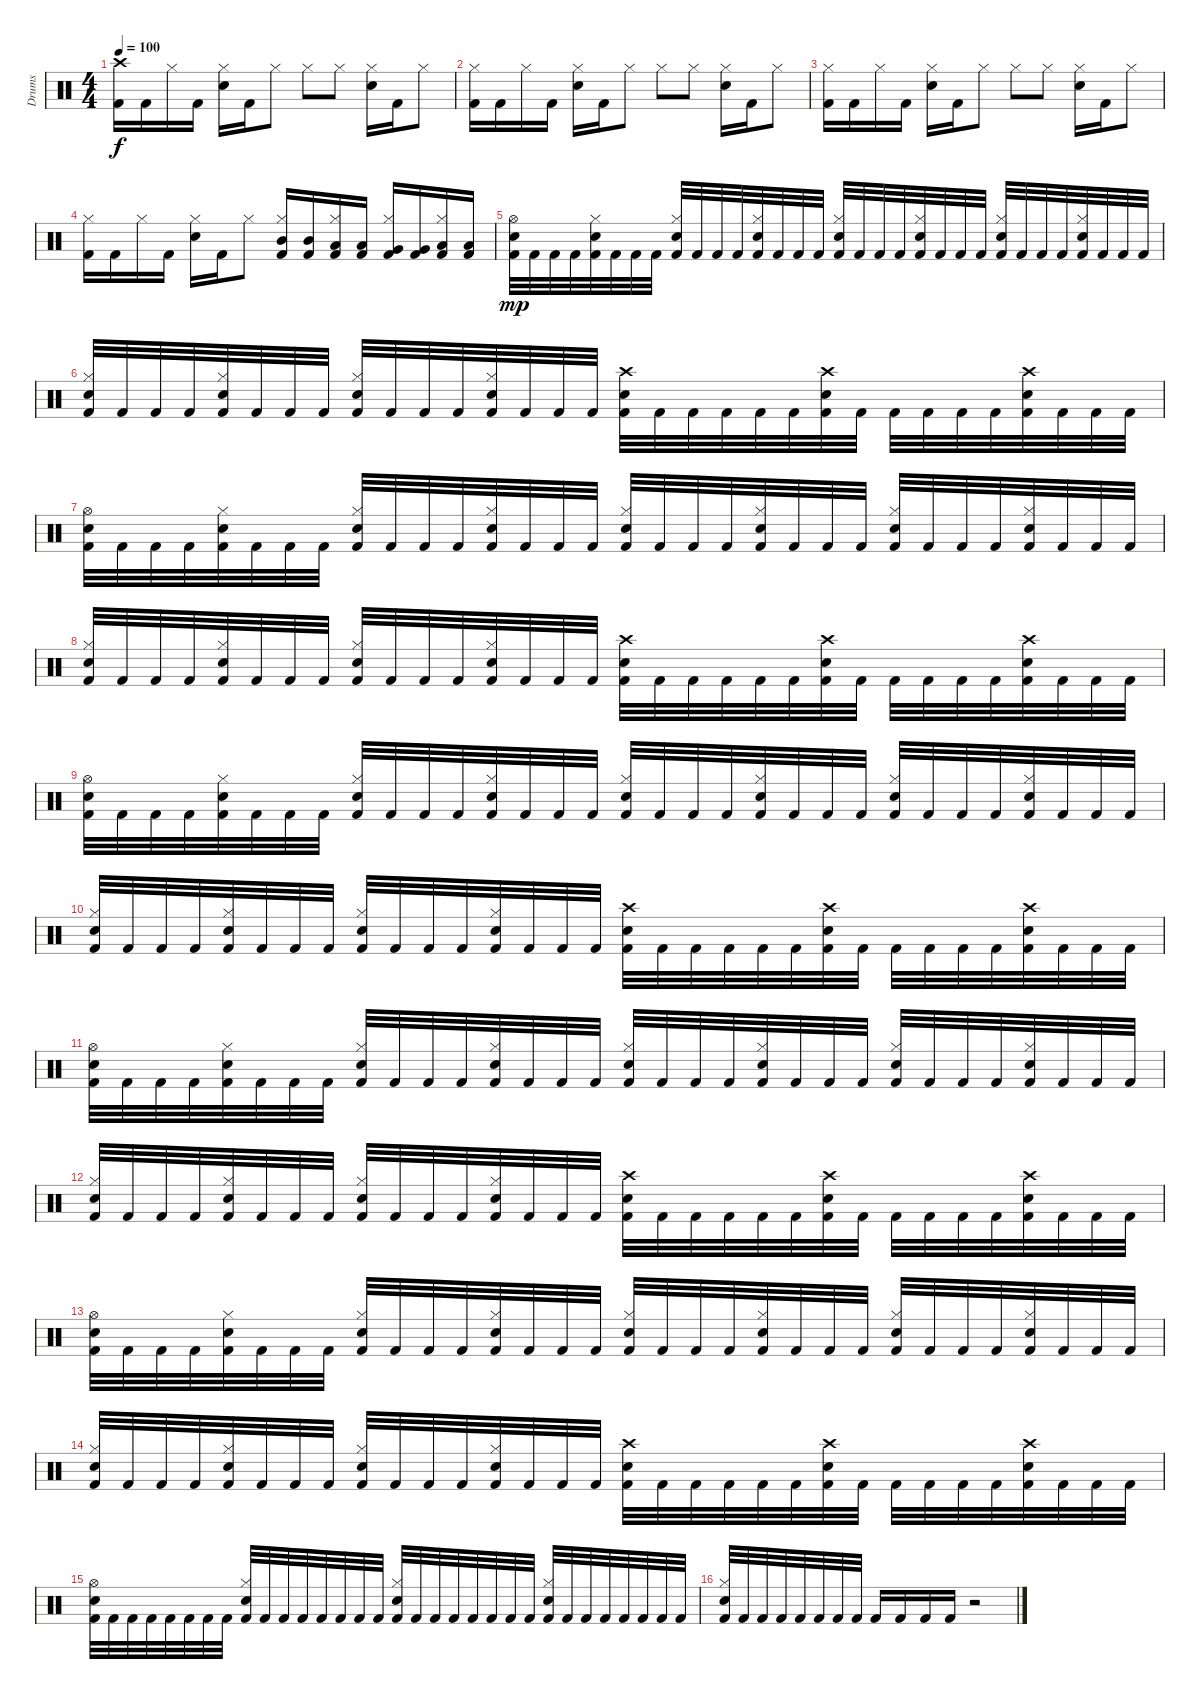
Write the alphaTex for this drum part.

\track ("Drums" "Drums") {instrument percussion}
\staff {score}
\articulation defaults
\ts (4 4)
\tempo 100
\clef neutral
\ks c
("Crash high (hit)" "Kick (hit) 2").16{dy f} "Kick (hit) 2".16 "Hi-Hat (closed)".16 "Kick (hit) 2".16 ("Hi-Hat (closed)" "Electric Snare (hit)").16 "Kick (hit) 2".16 "Hi-Hat (closed)".8 "Hi-Hat (closed)".8 "Hi-Hat (closed)".8 ("Hi-Hat (closed)" "Electric Snare (hit)").16 "Kick (hit) 2".16 "Hi-Hat (closed)".8 |
("Hi-Hat (closed)" "Kick (hit) 2").16 "Kick (hit) 2".16 "Hi-Hat (closed)".16 "Kick (hit) 2".16 ("Hi-Hat (closed)" "Electric Snare (hit)").16 "Kick (hit) 2".16 "Hi-Hat (closed)".8 "Hi-Hat (closed)".8 "Hi-Hat (closed)".8 ("Hi-Hat (closed)" "Electric Snare (hit)").16 "Kick (hit) 2".16 "Hi-Hat (closed)".8 |
("Hi-Hat (closed)" "Kick (hit) 2").16 "Kick (hit) 2".16 "Hi-Hat (closed)".16 "Kick (hit) 2".16 ("Hi-Hat (closed)" "Electric Snare (hit)").16 "Kick (hit) 2".16 "Hi-Hat (closed)".8 "Hi-Hat (closed)".8 "Hi-Hat (closed)".8 ("Hi-Hat (closed)" "Electric Snare (hit)").16 "Kick (hit) 2".16 "Hi-Hat (closed)".8 |
("Hi-Hat (closed)" "Kick (hit) 2").16 "Kick (hit) 2".16 "Hi-Hat (closed)".16 "Kick (hit) 2".16 ("Hi-Hat (closed)" "Electric Snare (hit)").16 "Kick (hit) 2".16 "Hi-Hat (closed)".8 ("Hi-Hat (closed)" "Mid Tom (hit)" "Kick (hit) 2").16 ("Mid Tom (hit)" "Kick (hit) 2").16 ("Hi-Hat (closed)" "Low Tom (hit)" "Kick (hit) 2").16 ("Low Tom (hit)" "Kick (hit) 2").16 ("Hi-Hat (closed)" "Very Low Tom (hit)" "Kick (hit) 2").16 ("Very Low Tom (hit)" "Kick (hit) 2").16 ("Hi-Hat (closed)" "Low Floor Tom (hit)" "Kick (hit) 2").16 ("Low Floor Tom (hit)" "Kick (hit) 2").16 |
("Hi-Hat (open)" "Electric Snare (hit)" "Kick (hit) 2").32{dy mp} "Kick (hit) 2".32 "Kick (hit) 2".32 "Kick (hit) 2".32 ("Hi-Hat (closed)" "Electric Snare (hit)" "Kick (hit) 2").32 "Kick (hit) 2".32 "Kick (hit) 2".32 "Kick (hit) 2".32 ("Hi-Hat (closed)" "Electric Snare (hit)" "Kick (hit) 2").32 "Kick (hit) 2".32 "Kick (hit) 2".32 "Kick (hit) 2".32 ("Hi-Hat (closed)" "Electric Snare (hit)" "Kick (hit) 2").32 "Kick (hit) 2".32 "Kick (hit) 2".32 "Kick (hit) 2".32 ("Hi-Hat (closed)" "Electric Snare (hit)" "Kick (hit) 2").32 "Kick (hit) 2".32 "Kick (hit) 2".32 "Kick (hit) 2".32 ("Hi-Hat (closed)" "Electric Snare (hit)" "Kick (hit) 2").32 "Kick (hit) 2".32 "Kick (hit) 2".32 "Kick (hit) 2".32 ("Hi-Hat (closed)" "Electric Snare (hit)" "Kick (hit) 2").32 "Kick (hit) 2".32 "Kick (hit) 2".32 "Kick (hit) 2".32 ("Hi-Hat (closed)" "Electric Snare (hit)" "Kick (hit) 2").32 "Kick (hit) 2".32 "Kick (hit) 2".32 "Kick (hit) 2".32 |
("Hi-Hat (closed)" "Electric Snare (hit)" "Kick (hit) 2").32 "Kick (hit) 2".32 "Kick (hit) 2".32 "Kick (hit) 2".32 ("Hi-Hat (closed)" "Electric Snare (hit)" "Kick (hit) 2").32 "Kick (hit) 2".32 "Kick (hit) 2".32 "Kick (hit) 2".32 ("Hi-Hat (closed)" "Electric Snare (hit)" "Kick (hit) 2").32 "Kick (hit) 2".32 "Kick (hit) 2".32 "Kick (hit) 2".32 ("Hi-Hat (closed)" "Electric Snare (hit)" "Kick (hit) 2").32 "Kick (hit) 2".32 "Kick (hit) 2".32 "Kick (hit) 2".32 ("Crash high (hit)" "Electric Snare (hit)" "Kick (hit) 2").32 "Kick (hit) 2".32 "Kick (hit) 2".32 "Kick (hit) 2".32 "Kick (hit) 2".32 "Kick (hit) 2".32 ("Crash high (hit)" "Electric Snare (hit)" "Kick (hit) 2").32 "Kick (hit) 2".32 "Kick (hit) 2".32 "Kick (hit) 2".32 "Kick (hit) 2".32 "Kick (hit) 2".32 ("Crash high (hit)" "Electric Snare (hit)" "Kick (hit) 2").32 "Kick (hit) 2".32 "Kick (hit) 2".32 "Kick (hit) 2".32 |
("Hi-Hat (open)" "Electric Snare (hit)" "Kick (hit) 2").32 "Kick (hit) 2".32 "Kick (hit) 2".32 "Kick (hit) 2".32 ("Hi-Hat (closed)" "Electric Snare (hit)" "Kick (hit) 2").32 "Kick (hit) 2".32 "Kick (hit) 2".32 "Kick (hit) 2".32 ("Hi-Hat (closed)" "Electric Snare (hit)" "Kick (hit) 2").32 "Kick (hit) 2".32 "Kick (hit) 2".32 "Kick (hit) 2".32 ("Hi-Hat (closed)" "Electric Snare (hit)" "Kick (hit) 2").32 "Kick (hit) 2".32 "Kick (hit) 2".32 "Kick (hit) 2".32 ("Hi-Hat (closed)" "Electric Snare (hit)" "Kick (hit) 2").32 "Kick (hit) 2".32 "Kick (hit) 2".32 "Kick (hit) 2".32 ("Hi-Hat (closed)" "Electric Snare (hit)" "Kick (hit) 2").32 "Kick (hit) 2".32 "Kick (hit) 2".32 "Kick (hit) 2".32 ("Hi-Hat (closed)" "Electric Snare (hit)" "Kick (hit) 2").32 "Kick (hit) 2".32 "Kick (hit) 2".32 "Kick (hit) 2".32 ("Hi-Hat (closed)" "Electric Snare (hit)" "Kick (hit) 2").32 "Kick (hit) 2".32 "Kick (hit) 2".32 "Kick (hit) 2".32 |
("Hi-Hat (closed)" "Electric Snare (hit)" "Kick (hit) 2").32 "Kick (hit) 2".32 "Kick (hit) 2".32 "Kick (hit) 2".32 ("Hi-Hat (closed)" "Electric Snare (hit)" "Kick (hit) 2").32 "Kick (hit) 2".32 "Kick (hit) 2".32 "Kick (hit) 2".32 ("Hi-Hat (closed)" "Electric Snare (hit)" "Kick (hit) 2").32 "Kick (hit) 2".32 "Kick (hit) 2".32 "Kick (hit) 2".32 ("Hi-Hat (closed)" "Electric Snare (hit)" "Kick (hit) 2").32 "Kick (hit) 2".32 "Kick (hit) 2".32 "Kick (hit) 2".32 ("Crash high (hit)" "Electric Snare (hit)" "Kick (hit) 2").32 "Kick (hit) 2".32 "Kick (hit) 2".32 "Kick (hit) 2".32 "Kick (hit) 2".32 "Kick (hit) 2".32 ("Crash high (hit)" "Electric Snare (hit)" "Kick (hit) 2").32 "Kick (hit) 2".32 "Kick (hit) 2".32 "Kick (hit) 2".32 "Kick (hit) 2".32 "Kick (hit) 2".32 ("Crash high (hit)" "Electric Snare (hit)" "Kick (hit) 2").32 "Kick (hit) 2".32 "Kick (hit) 2".32 "Kick (hit) 2".32 |
("Hi-Hat (open)" "Electric Snare (hit)" "Kick (hit) 2").32 "Kick (hit) 2".32 "Kick (hit) 2".32 "Kick (hit) 2".32 ("Hi-Hat (closed)" "Electric Snare (hit)" "Kick (hit) 2").32 "Kick (hit) 2".32 "Kick (hit) 2".32 "Kick (hit) 2".32 ("Hi-Hat (closed)" "Electric Snare (hit)" "Kick (hit) 2").32 "Kick (hit) 2".32 "Kick (hit) 2".32 "Kick (hit) 2".32 ("Hi-Hat (closed)" "Electric Snare (hit)" "Kick (hit) 2").32 "Kick (hit) 2".32 "Kick (hit) 2".32 "Kick (hit) 2".32 ("Hi-Hat (closed)" "Electric Snare (hit)" "Kick (hit) 2").32 "Kick (hit) 2".32 "Kick (hit) 2".32 "Kick (hit) 2".32 ("Hi-Hat (closed)" "Electric Snare (hit)" "Kick (hit) 2").32 "Kick (hit) 2".32 "Kick (hit) 2".32 "Kick (hit) 2".32 ("Hi-Hat (closed)" "Electric Snare (hit)" "Kick (hit) 2").32 "Kick (hit) 2".32 "Kick (hit) 2".32 "Kick (hit) 2".32 ("Hi-Hat (closed)" "Electric Snare (hit)" "Kick (hit) 2").32 "Kick (hit) 2".32 "Kick (hit) 2".32 "Kick (hit) 2".32 |
("Hi-Hat (closed)" "Electric Snare (hit)" "Kick (hit) 2").32 "Kick (hit) 2".32 "Kick (hit) 2".32 "Kick (hit) 2".32 ("Hi-Hat (closed)" "Electric Snare (hit)" "Kick (hit) 2").32 "Kick (hit) 2".32 "Kick (hit) 2".32 "Kick (hit) 2".32 ("Hi-Hat (closed)" "Electric Snare (hit)" "Kick (hit) 2").32 "Kick (hit) 2".32 "Kick (hit) 2".32 "Kick (hit) 2".32 ("Hi-Hat (closed)" "Electric Snare (hit)" "Kick (hit) 2").32 "Kick (hit) 2".32 "Kick (hit) 2".32 "Kick (hit) 2".32 ("Crash high (hit)" "Electric Snare (hit)" "Kick (hit) 2").32 "Kick (hit) 2".32 "Kick (hit) 2".32 "Kick (hit) 2".32 "Kick (hit) 2".32 "Kick (hit) 2".32 ("Crash high (hit)" "Electric Snare (hit)" "Kick (hit) 2").32 "Kick (hit) 2".32 "Kick (hit) 2".32 "Kick (hit) 2".32 "Kick (hit) 2".32 "Kick (hit) 2".32 ("Crash high (hit)" "Electric Snare (hit)" "Kick (hit) 2").32 "Kick (hit) 2".32 "Kick (hit) 2".32 "Kick (hit) 2".32 |
("Hi-Hat (open)" "Electric Snare (hit)" "Kick (hit) 2").32 "Kick (hit) 2".32 "Kick (hit) 2".32 "Kick (hit) 2".32 ("Hi-Hat (closed)" "Electric Snare (hit)" "Kick (hit) 2").32 "Kick (hit) 2".32 "Kick (hit) 2".32 "Kick (hit) 2".32 ("Hi-Hat (closed)" "Electric Snare (hit)" "Kick (hit) 2").32 "Kick (hit) 2".32 "Kick (hit) 2".32 "Kick (hit) 2".32 ("Hi-Hat (closed)" "Electric Snare (hit)" "Kick (hit) 2").32 "Kick (hit) 2".32 "Kick (hit) 2".32 "Kick (hit) 2".32 ("Hi-Hat (closed)" "Electric Snare (hit)" "Kick (hit) 2").32 "Kick (hit) 2".32 "Kick (hit) 2".32 "Kick (hit) 2".32 ("Hi-Hat (closed)" "Electric Snare (hit)" "Kick (hit) 2").32 "Kick (hit) 2".32 "Kick (hit) 2".32 "Kick (hit) 2".32 ("Hi-Hat (closed)" "Electric Snare (hit)" "Kick (hit) 2").32 "Kick (hit) 2".32 "Kick (hit) 2".32 "Kick (hit) 2".32 ("Hi-Hat (closed)" "Electric Snare (hit)" "Kick (hit) 2").32 "Kick (hit) 2".32 "Kick (hit) 2".32 "Kick (hit) 2".32 |
("Hi-Hat (closed)" "Electric Snare (hit)" "Kick (hit) 2").32 "Kick (hit) 2".32 "Kick (hit) 2".32 "Kick (hit) 2".32 ("Hi-Hat (closed)" "Electric Snare (hit)" "Kick (hit) 2").32 "Kick (hit) 2".32 "Kick (hit) 2".32 "Kick (hit) 2".32 ("Hi-Hat (closed)" "Electric Snare (hit)" "Kick (hit) 2").32 "Kick (hit) 2".32 "Kick (hit) 2".32 "Kick (hit) 2".32 ("Hi-Hat (closed)" "Electric Snare (hit)" "Kick (hit) 2").32 "Kick (hit) 2".32 "Kick (hit) 2".32 "Kick (hit) 2".32 ("Crash high (hit)" "Electric Snare (hit)" "Kick (hit) 2").32 "Kick (hit) 2".32 "Kick (hit) 2".32 "Kick (hit) 2".32 "Kick (hit) 2".32 "Kick (hit) 2".32 ("Crash high (hit)" "Electric Snare (hit)" "Kick (hit) 2").32 "Kick (hit) 2".32 "Kick (hit) 2".32 "Kick (hit) 2".32 "Kick (hit) 2".32 "Kick (hit) 2".32 ("Crash high (hit)" "Electric Snare (hit)" "Kick (hit) 2").32 "Kick (hit) 2".32 "Kick (hit) 2".32 "Kick (hit) 2".32 |
("Hi-Hat (open)" "Electric Snare (hit)" "Kick (hit) 2").32 "Kick (hit) 2".32 "Kick (hit) 2".32 "Kick (hit) 2".32 ("Hi-Hat (closed)" "Electric Snare (hit)" "Kick (hit) 2").32 "Kick (hit) 2".32 "Kick (hit) 2".32 "Kick (hit) 2".32 ("Hi-Hat (closed)" "Electric Snare (hit)" "Kick (hit) 2").32 "Kick (hit) 2".32 "Kick (hit) 2".32 "Kick (hit) 2".32 ("Hi-Hat (closed)" "Electric Snare (hit)" "Kick (hit) 2").32 "Kick (hit) 2".32 "Kick (hit) 2".32 "Kick (hit) 2".32 ("Hi-Hat (closed)" "Electric Snare (hit)" "Kick (hit) 2").32 "Kick (hit) 2".32 "Kick (hit) 2".32 "Kick (hit) 2".32 ("Hi-Hat (closed)" "Electric Snare (hit)" "Kick (hit) 2").32 "Kick (hit) 2".32 "Kick (hit) 2".32 "Kick (hit) 2".32 ("Hi-Hat (closed)" "Electric Snare (hit)" "Kick (hit) 2").32 "Kick (hit) 2".32 "Kick (hit) 2".32 "Kick (hit) 2".32 ("Hi-Hat (closed)" "Electric Snare (hit)" "Kick (hit) 2").32 "Kick (hit) 2".32 "Kick (hit) 2".32 "Kick (hit) 2".32 |
("Hi-Hat (closed)" "Electric Snare (hit)" "Kick (hit) 2").32 "Kick (hit) 2".32 "Kick (hit) 2".32 "Kick (hit) 2".32 ("Hi-Hat (closed)" "Electric Snare (hit)" "Kick (hit) 2").32 "Kick (hit) 2".32 "Kick (hit) 2".32 "Kick (hit) 2".32 ("Hi-Hat (closed)" "Electric Snare (hit)" "Kick (hit) 2").32 "Kick (hit) 2".32 "Kick (hit) 2".32 "Kick (hit) 2".32 ("Hi-Hat (closed)" "Electric Snare (hit)" "Kick (hit) 2").32 "Kick (hit) 2".32 "Kick (hit) 2".32 "Kick (hit) 2".32 ("Crash high (hit)" "Electric Snare (hit)" "Kick (hit) 2").32 "Kick (hit) 2".32 "Kick (hit) 2".32 "Kick (hit) 2".32 "Kick (hit) 2".32 "Kick (hit) 2".32 ("Crash high (hit)" "Electric Snare (hit)" "Kick (hit) 2").32 "Kick (hit) 2".32 "Kick (hit) 2".32 "Kick (hit) 2".32 "Kick (hit) 2".32 "Kick (hit) 2".32 ("Crash high (hit)" "Electric Snare (hit)" "Kick (hit) 2").32 "Kick (hit) 2".32 "Kick (hit) 2".32 "Kick (hit) 2".32 |
("Hi-Hat (open)" "Electric Snare (hit)" "Kick (hit) 2").32 "Kick (hit) 2".32 "Kick (hit) 2".32 "Kick (hit) 2".32 "Kick (hit) 2".32 "Kick (hit) 2".32 "Kick (hit) 2".32 "Kick (hit) 2".32 ("Hi-Hat (closed)" "Electric Snare (hit)" "Kick (hit) 2").32 "Kick (hit) 2".32 "Kick (hit) 2".32 "Kick (hit) 2".32 "Kick (hit) 2".32 "Kick (hit) 2".32 "Kick (hit) 2".32 "Kick (hit) 2".32 ("Hi-Hat (closed)" "Electric Snare (hit)" "Kick (hit) 2").32 "Kick (hit) 2".32 "Kick (hit) 2".32 "Kick (hit) 2".32 "Kick (hit) 2".32 "Kick (hit) 2".32 "Kick (hit) 2".32 "Kick (hit) 2".32 ("Hi-Hat (closed)" "Electric Snare (hit)" "Kick (hit) 2").32 "Kick (hit) 2".32 "Kick (hit) 2".32 "Kick (hit) 2".32 "Kick (hit) 2".32 "Kick (hit) 2".32 "Kick (hit) 2".32 "Kick (hit) 2".32 |
("Hi-Hat (closed)" "Electric Snare (hit)" "Kick (hit) 2").32 "Kick (hit) 2".32 "Kick (hit) 2".32 "Kick (hit) 2".32 "Kick (hit) 2".32 "Kick (hit) 2".32 "Kick (hit) 2".32 "Kick (hit) 2".32 "Kick (hit) 2".16 "Kick (hit) 2".16 "Kick (hit) 2".16 "Kick (hit) 2".16 r.2
